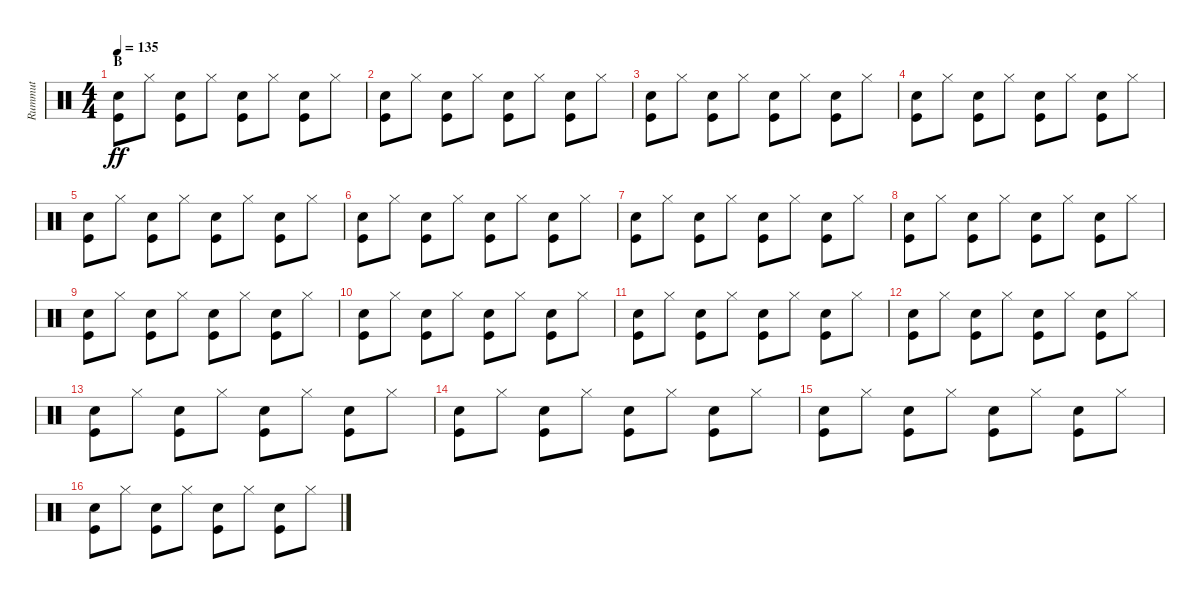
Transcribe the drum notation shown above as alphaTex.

\track ("Rummut" "Rummut") {instrument percussion}
\staff {score}
\articulation defaults
\ts (4 4)
\section ("" "B")
\tempo 135
\clef neutral
\ks c
("Electric Snare (hit)" "Kick (hit)").8{dy ff} "Hi-Hat (closed)".8 ("Electric Snare (hit)" "Kick (hit)").8 "Hi-Hat (closed)".8 ("Electric Snare (hit)" "Kick (hit)").8 "Hi-Hat (closed)".8 ("Electric Snare (hit)" "Kick (hit)").8 "Hi-Hat (closed)".8 |
("Electric Snare (hit)" "Kick (hit)").8 "Hi-Hat (closed)".8 ("Electric Snare (hit)" "Kick (hit)").8 "Hi-Hat (closed)".8 ("Electric Snare (hit)" "Kick (hit)").8 "Hi-Hat (closed)".8 ("Electric Snare (hit)" "Kick (hit)").8 "Hi-Hat (closed)".8 |
("Electric Snare (hit)" "Kick (hit)").8 "Hi-Hat (closed)".8 ("Electric Snare (hit)" "Kick (hit)").8 "Hi-Hat (closed)".8 ("Electric Snare (hit)" "Kick (hit)").8 "Hi-Hat (closed)".8 ("Electric Snare (hit)" "Kick (hit)").8 "Hi-Hat (closed)".8 |
("Electric Snare (hit)" "Kick (hit)").8 "Hi-Hat (closed)".8 ("Electric Snare (hit)" "Kick (hit)").8 "Hi-Hat (closed)".8 ("Electric Snare (hit)" "Kick (hit)").8 "Hi-Hat (closed)".8 ("Electric Snare (hit)" "Kick (hit)").8 "Hi-Hat (closed)".8 |
("Electric Snare (hit)" "Kick (hit)").8 "Hi-Hat (closed)".8 ("Electric Snare (hit)" "Kick (hit)").8 "Hi-Hat (closed)".8 ("Electric Snare (hit)" "Kick (hit)").8 "Hi-Hat (closed)".8 ("Electric Snare (hit)" "Kick (hit)").8 "Hi-Hat (closed)".8 |
("Electric Snare (hit)" "Kick (hit)").8 "Hi-Hat (closed)".8 ("Electric Snare (hit)" "Kick (hit)").8 "Hi-Hat (closed)".8 ("Electric Snare (hit)" "Kick (hit)").8 "Hi-Hat (closed)".8 ("Electric Snare (hit)" "Kick (hit)").8 "Hi-Hat (closed)".8 |
("Electric Snare (hit)" "Kick (hit)").8 "Hi-Hat (closed)".8 ("Electric Snare (hit)" "Kick (hit)").8 "Hi-Hat (closed)".8 ("Electric Snare (hit)" "Kick (hit)").8 "Hi-Hat (closed)".8 ("Electric Snare (hit)" "Kick (hit)").8 "Hi-Hat (closed)".8 |
("Electric Snare (hit)" "Kick (hit)").8 "Hi-Hat (closed)".8 ("Electric Snare (hit)" "Kick (hit)").8 "Hi-Hat (closed)".8 ("Electric Snare (hit)" "Kick (hit)").8 "Hi-Hat (closed)".8 ("Electric Snare (hit)" "Kick (hit)").8 "Hi-Hat (closed)".8 |
("Electric Snare (hit)" "Kick (hit)").8 "Hi-Hat (closed)".8 ("Electric Snare (hit)" "Kick (hit)").8 "Hi-Hat (closed)".8 ("Electric Snare (hit)" "Kick (hit)").8 "Hi-Hat (closed)".8 ("Electric Snare (hit)" "Kick (hit)").8 "Hi-Hat (closed)".8 |
("Electric Snare (hit)" "Kick (hit)").8 "Hi-Hat (closed)".8 ("Electric Snare (hit)" "Kick (hit)").8 "Hi-Hat (closed)".8 ("Electric Snare (hit)" "Kick (hit)").8 "Hi-Hat (closed)".8 ("Electric Snare (hit)" "Kick (hit)").8 "Hi-Hat (closed)".8 |
("Electric Snare (hit)" "Kick (hit)").8 "Hi-Hat (closed)".8 ("Electric Snare (hit)" "Kick (hit)").8 "Hi-Hat (closed)".8 ("Electric Snare (hit)" "Kick (hit)").8 "Hi-Hat (closed)".8 ("Electric Snare (hit)" "Kick (hit)").8 "Hi-Hat (closed)".8 |
("Electric Snare (hit)" "Kick (hit)").8 "Hi-Hat (closed)".8 ("Electric Snare (hit)" "Kick (hit)").8 "Hi-Hat (closed)".8 ("Electric Snare (hit)" "Kick (hit)").8 "Hi-Hat (closed)".8 ("Electric Snare (hit)" "Kick (hit)").8 "Hi-Hat (closed)".8 |
("Electric Snare (hit)" "Kick (hit)").8 "Hi-Hat (closed)".8 ("Electric Snare (hit)" "Kick (hit)").8 "Hi-Hat (closed)".8 ("Electric Snare (hit)" "Kick (hit)").8 "Hi-Hat (closed)".8 ("Electric Snare (hit)" "Kick (hit)").8 "Hi-Hat (closed)".8 |
("Electric Snare (hit)" "Kick (hit)").8 "Hi-Hat (closed)".8 ("Electric Snare (hit)" "Kick (hit)").8 "Hi-Hat (closed)".8 ("Electric Snare (hit)" "Kick (hit)").8 "Hi-Hat (closed)".8 ("Electric Snare (hit)" "Kick (hit)").8 "Hi-Hat (closed)".8 |
("Electric Snare (hit)" "Kick (hit)").8 "Hi-Hat (closed)".8 ("Electric Snare (hit)" "Kick (hit)").8 "Hi-Hat (closed)".8 ("Electric Snare (hit)" "Kick (hit)").8 "Hi-Hat (closed)".8 ("Electric Snare (hit)" "Kick (hit)").8 "Hi-Hat (closed)".8 |
("Electric Snare (hit)" "Kick (hit)").8 "Hi-Hat (closed)".8 ("Electric Snare (hit)" "Kick (hit)").8 "Hi-Hat (closed)".8 ("Electric Snare (hit)" "Kick (hit)").8 "Hi-Hat (closed)".8 ("Electric Snare (hit)" "Kick (hit)").8 "Hi-Hat (closed)".8
